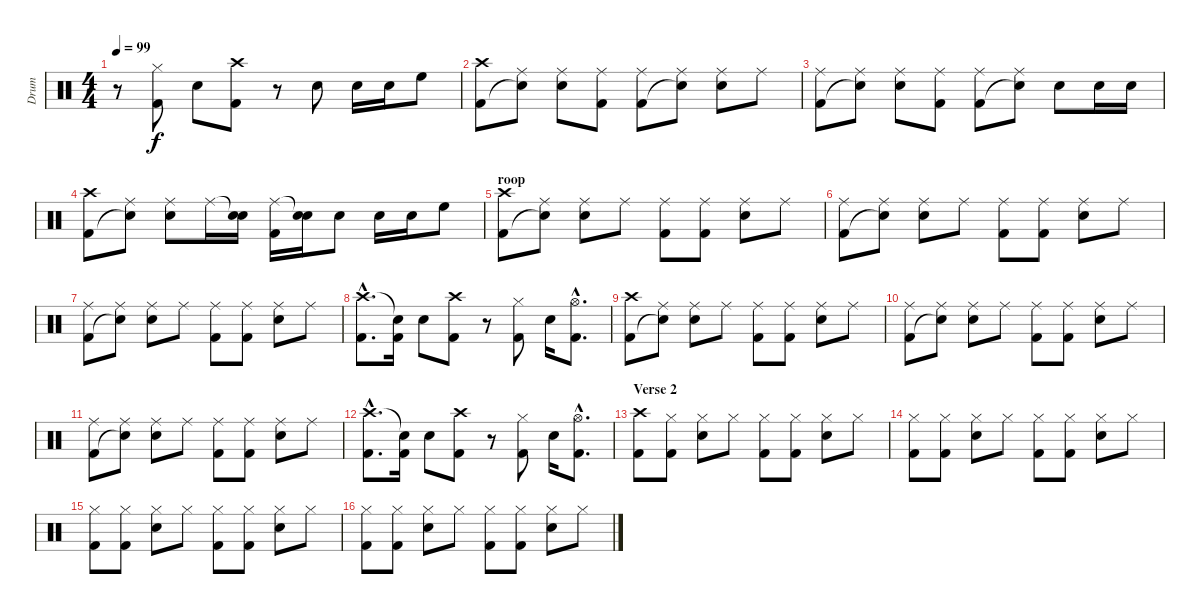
\track ("Drum" "Drum") {instrument percussion}
\staff {score}
\articulation defaults
\ts (4 4)
\tempo 99
\clef neutral
\ks c
r.8{dy f} ("Hi-Hat (closed)" "Kick (hit) 2").8 "Snare (hit) 2".8 ("Crash high (hit)" "Kick (hit) 2").8 r.8 "Snare (hit) 2".8 "Snare (hit) 2".16 "Snare (hit) 2".16 "High Floor Tom (hit)".8 |
("Crash high (hit)" "Kick (hit) 2").8 ("Ride (middle)" "Snare (hit)"{t}).8 ("Ride (middle)" "Snare (hit) 2").8 ("Ride (middle)" "Kick (hit) 2").8 ("Ride (middle)" "Kick (hit) 2").8 ("Ride (middle)" "Snare (hit)"{t}).8 ("Ride (middle)" "Snare (hit) 2").8 "Ride (middle)".8 |
("Ride (middle)" "Kick (hit) 2").8 ("Ride (middle)" "Snare (hit)"{t}).8 ("Ride (middle)" "Snare (hit) 2").8 ("Ride (middle)" "Kick (hit) 2").8 ("Ride (middle)" "Kick (hit) 2").8 ("Ride (middle)" "Snare (hit)"{t}).8 "Snare (hit) 2".8 "Snare (hit) 2".16 "Snare (hit) 2".16 |
("Crash high (hit)" "Kick (hit) 2").8 ("Ride (middle)" "Snare (hit)"{t}).8 ("Ride (middle)" "Snare (hit) 2").8 "Ride (middle)".16 ("Snare (hit)"{t} "Snare (hit) 2").16 ("Ride (middle)" "Kick (hit) 2").16 ("Snare (hit)"{t} "Snare (hit) 2").16 "Snare (hit) 2".8 "Snare (hit) 2".16 "Snare (hit) 2".16 "High Floor Tom (hit)".8 |
\section ("" "roop")
("Crash high (hit)" "Kick (hit) 2").8 ("Ride (middle)" "Snare (hit)"{t}).8 ("Ride (middle)" "Snare (hit) 2").8 "Ride (middle)".8 ("Ride (middle)" "Kick (hit) 2").8 ("Ride (middle)" "Kick (hit) 2").8 ("Ride (middle)" "Snare (hit) 2").8 "Ride (middle)".8 |
("Ride (middle)" "Kick (hit) 2").8 ("Ride (middle)" "Snare (hit)"{t}).8 ("Ride (middle)" "Snare (hit) 2").8 "Ride (middle)".8 ("Ride (middle)" "Kick (hit) 2").8 ("Ride (middle)" "Kick (hit) 2").8 ("Ride (middle)" "Snare (hit) 2").8 "Ride (middle)".8 |
("Ride (middle)" "Kick (hit) 2").8 ("Ride (middle)" "Snare (hit)"{t}).8 ("Ride (middle)" "Snare (hit) 2").8 "Ride (middle)".8 ("Ride (middle)" "Kick (hit) 2").8 ("Ride (middle)" "Kick (hit) 2").8 ("Ride (middle)" "Snare (hit) 2").8 "Ride (middle)".8 |
("Crash high (hit)"{hac} "Kick (hit) 2"{hac}).8{d} ("Snare (hit)"{t} "Kick (hit) 2").16 "Snare (hit) 2".8 ("Crash high (hit)" "Kick (hit) 2").8 r.8 ("Hi-Hat (closed)" "Kick (hit) 2").8 "Snare (hit) 2".16 ("Hi-Hat (open)"{hac} "Kick (hit) 2"{hac}).8{d} |
("Crash high (hit)" "Kick (hit) 2").8 ("Ride (middle)" "Snare (hit)"{t}).8 ("Ride (middle)" "Snare (hit) 2").8 "Ride (middle)".8 ("Ride (middle)" "Kick (hit) 2").8 ("Ride (middle)" "Kick (hit) 2").8 ("Ride (middle)" "Snare (hit) 2").8 "Ride (middle)".8 |
("Ride (middle)" "Kick (hit) 2").8 ("Ride (middle)" "Snare (hit)"{t}).8 ("Ride (middle)" "Snare (hit) 2").8 "Ride (middle)".8 ("Ride (middle)" "Kick (hit) 2").8 ("Ride (middle)" "Kick (hit) 2").8 ("Ride (middle)" "Snare (hit) 2").8 "Ride (middle)".8 |
("Ride (middle)" "Kick (hit) 2").8 ("Ride (middle)" "Snare (hit)"{t}).8 ("Ride (middle)" "Snare (hit) 2").8 "Ride (middle)".8 ("Ride (middle)" "Kick (hit) 2").8 ("Ride (middle)" "Kick (hit) 2").8 ("Ride (middle)" "Snare (hit) 2").8 "Ride (middle)".8 |
("Crash high (hit)"{hac} "Kick (hit) 2"{hac}).8{d} ("Snare (hit)"{t} "Kick (hit) 2").16 "Snare (hit) 2".8 ("Crash high (hit)" "Kick (hit) 2").8 r.8 ("Hi-Hat (closed)" "Kick (hit) 2").8 "Snare (hit) 2".16 ("Hi-Hat (open)"{hac} "Kick (hit) 2"{hac}).8{d} |
\section ("" "Verse 2")
("Crash high (hit)" "Kick (hit) 2").8 ("Hi-Hat (closed)" "Kick (hit) 2").8 ("Hi-Hat (closed)" "Snare (hit) 2").8 "Hi-Hat (closed)".8 ("Hi-Hat (closed)" "Kick (hit) 2").8 ("Hi-Hat (closed)" "Kick (hit) 2").8 ("Hi-Hat (closed)" "Snare (hit) 2").8 "Hi-Hat (closed)".8 |
("Hi-Hat (closed)" "Kick (hit) 2").8 ("Hi-Hat (closed)" "Kick (hit) 2").8 ("Hi-Hat (closed)" "Snare (hit) 2").8 "Hi-Hat (closed)".8 ("Hi-Hat (closed)" "Kick (hit) 2").8 ("Hi-Hat (closed)" "Kick (hit) 2").8 ("Hi-Hat (closed)" "Snare (hit) 2").8 "Hi-Hat (closed)".8 |
("Hi-Hat (closed)" "Kick (hit) 2").8 ("Hi-Hat (closed)" "Kick (hit) 2").8 ("Hi-Hat (closed)" "Snare (hit) 2").8 "Hi-Hat (closed)".8 ("Hi-Hat (closed)" "Kick (hit) 2").8 ("Hi-Hat (closed)" "Kick (hit) 2").8 ("Hi-Hat (closed)" "Snare (hit) 2").8 "Hi-Hat (closed)".8 |
("Hi-Hat (closed)" "Kick (hit) 2").8 ("Hi-Hat (closed)" "Kick (hit) 2").8 ("Hi-Hat (closed)" "Snare (hit) 2").8 "Hi-Hat (closed)".8 ("Hi-Hat (closed)" "Kick (hit) 2").8 ("Hi-Hat (closed)" "Kick (hit) 2").8 ("Hi-Hat (closed)" "Snare (hit) 2").8 "Hi-Hat (closed)".8
